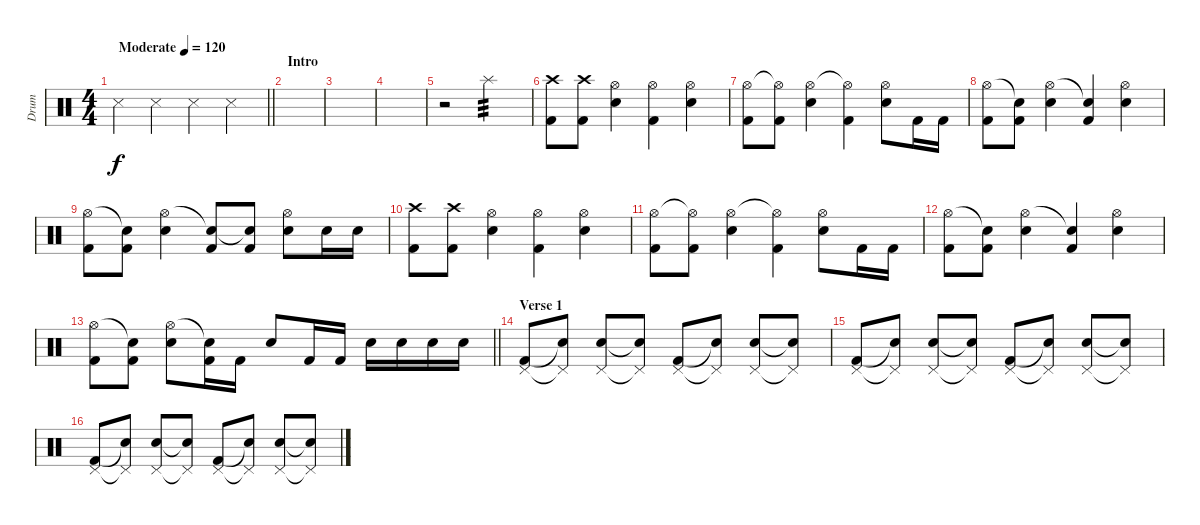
\track ("Drum" "Drum") {instrument percussion}
\staff {score}
\articulation defaults
\ts (4 4)
\tempo (120 "Moderate")
\clef neutral
\barLineRight lightlight
\ks c "Snare (side stick) 3".4{dy f} "Snare (side stick) 3".4 "Snare (side stick) 3".4 "Snare (side stick) 3".4
|
\section ("" "Intro")
|
|
|
r.2 "Splash (hit)".2{tp 3 volume 16} |
("Crash high (hit)" "Kick (hit) 2").8{volume 15} ("Crash high (hit)" "Kick (hit) 2").8 ("Hi-Hat (open)" "Electric Snare (hit)").4 ("Hi-Hat (open)" "Kick (hit) 2").4 ("Hi-Hat (open)" "Electric Snare (hit)").4 |
("Hi-Hat (open)" "Kick (hit) 2").8 ("Hi-Hat (open)"{t} "Kick (hit) 2").8 ("Hi-Hat (open)" "Electric Snare (hit)").4 ("Hi-Hat (open)"{t} "Kick (hit) 2").4 ("Hi-Hat (open)" "Electric Snare (hit)").8 "Kick (hit) 2".16 "Kick (hit) 2".16 |
("Hi-Hat (open)" "Kick (hit) 2").8 ("Snare (hit)"{t} "Kick (hit) 2").8 ("Hi-Hat (open)" "Electric Snare (hit)").4 ("Snare (hit)"{t} "Kick (hit) 2").4 ("Hi-Hat (open)" "Electric Snare (hit)").4 |
("Hi-Hat (open)" "Kick (hit) 2").8 ("Snare (hit)"{t} "Kick (hit) 2").8 ("Hi-Hat (open)" "Electric Snare (hit)").4 ("Snare (hit)"{t} "Kick (hit) 2").8 ("Snare (hit)"{t} "Kick (hit) 2").8 ("Hi-Hat (open)" "Electric Snare (hit)").8 "Electric Snare (hit)".16 "Electric Snare (hit)".16 |
("Crash high (hit)" "Kick (hit) 2").8{volume 15} ("Crash high (hit)" "Kick (hit) 2").8 ("Hi-Hat (open)" "Electric Snare (hit)").4 ("Hi-Hat (open)" "Kick (hit) 2").4 ("Hi-Hat (open)" "Electric Snare (hit)").4 |
("Hi-Hat (open)" "Kick (hit) 2").8 ("Hi-Hat (open)"{t} "Kick (hit) 2").8 ("Hi-Hat (open)" "Electric Snare (hit)").4 ("Hi-Hat (open)"{t} "Kick (hit) 2").4 ("Hi-Hat (open)" "Electric Snare (hit)").8 "Kick (hit) 2".16 "Kick (hit) 2".16 |
("Hi-Hat (open)" "Kick (hit) 2").8 ("Snare (hit)"{t} "Kick (hit) 2").8 ("Hi-Hat (open)" "Electric Snare (hit)").4 ("Snare (hit)"{t} "Kick (hit) 2").4 ("Hi-Hat (open)" "Electric Snare (hit)").4 |
\barLineRight lightlight
("Hi-Hat (open)" "Kick (hit) 2").8 ("Snare (hit)"{t} "Kick (hit) 2").8 ("Hi-Hat (open)" "Electric Snare (hit)").8 ("Snare (hit)"{t} "Kick (hit) 2").16 "Kick (hit) 2".16 "Electric Snare (hit)".8 "Kick (hit) 2".16 "Kick (hit) 2".16 "Electric Snare (hit)".16 "Electric Snare (hit)".16 "Electric Snare (hit)".16 "Electric Snare (hit)".16 |
\section ("" "Verse 1")
("Pedal Hi-Hat (hit)" "Kick (hit) 2").8{volume 11} ("Pedal Hi-Hat (hit)"{t} "Snare (hit)"{t}).8 ("Pedal Hi-Hat (hit)" "Electric Snare (hit)").8 ("Pedal Hi-Hat (hit)"{t} "Snare (hit)"{t}).8 ("Pedal Hi-Hat (hit)" "Kick (hit) 2").8 ("Pedal Hi-Hat (hit)"{t} "Snare (hit)"{t}).8 ("Pedal Hi-Hat (hit)" "Electric Snare (hit)").8 ("Pedal Hi-Hat (hit)"{t} "Snare (hit)"{t}).8 |
("Pedal Hi-Hat (hit)" "Kick (hit) 2").8{volume 11} ("Pedal Hi-Hat (hit)"{t} "Snare (hit)"{t}).8 ("Pedal Hi-Hat (hit)" "Electric Snare (hit)").8 ("Pedal Hi-Hat (hit)"{t} "Snare (hit)"{t}).8 ("Pedal Hi-Hat (hit)" "Kick (hit) 2").8 ("Pedal Hi-Hat (hit)"{t} "Snare (hit)"{t}).8 ("Pedal Hi-Hat (hit)" "Electric Snare (hit)").8 ("Pedal Hi-Hat (hit)"{t} "Snare (hit)"{t}).8 |
("Pedal Hi-Hat (hit)" "Kick (hit) 2").8{volume 11} ("Pedal Hi-Hat (hit)"{t} "Snare (hit)"{t}).8 ("Pedal Hi-Hat (hit)" "Electric Snare (hit)").8 ("Pedal Hi-Hat (hit)"{t} "Snare (hit)"{t}).8 ("Pedal Hi-Hat (hit)" "Kick (hit) 2").8 ("Pedal Hi-Hat (hit)"{t} "Snare (hit)"{t}).8 ("Pedal Hi-Hat (hit)" "Electric Snare (hit)").8 ("Pedal Hi-Hat (hit)"{t} "Snare (hit)"{t}).8
